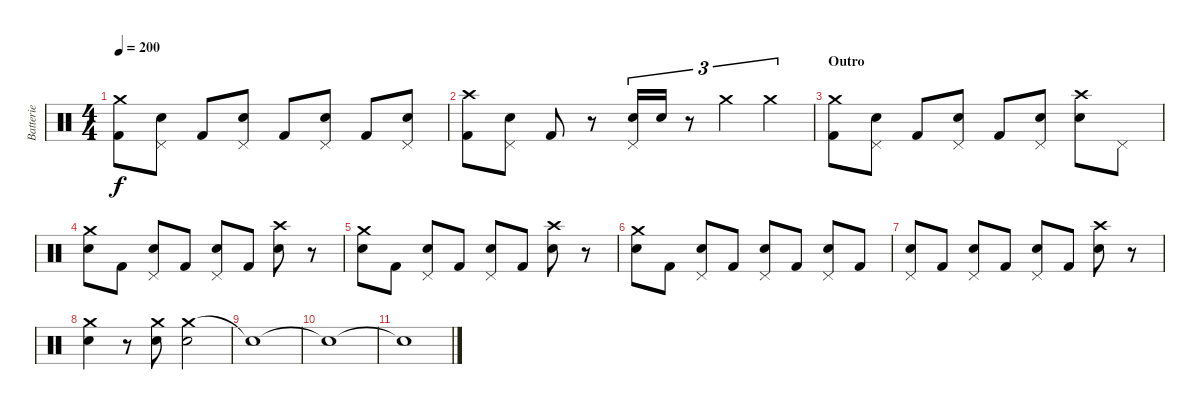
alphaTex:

\track ("Batterie" "Batterie") {instrument percussion}
\staff {score}
\articulation defaults
\ts (4 4)
\tempo 200
\clef neutral
\ks c
("Crash medium (hit)" "Kick (hit) 2").8{dy f} ("Pedal Hi-Hat (hit)" "Snare (hit) 2").8 "Kick (hit) 2".8 ("Pedal Hi-Hat (hit)" "Snare (hit) 2").8 "Kick (hit) 2".8 ("Pedal Hi-Hat (hit)" "Snare (hit) 2").8 "Kick (hit) 2".8 ("Pedal Hi-Hat (hit)" "Snare (hit) 2").8 |
("Crash high (hit)" "Kick (hit) 2").8 ("Pedal Hi-Hat (hit)" "Snare (hit) 2").8 "Kick (hit) 2".8 r.8 ("Pedal Hi-Hat (hit)" "Snare (hit) 2").16{tu (3 2)} "Snare (hit) 2".16{tu (3 2)} r.8{tu (3 2)} "Crash medium (hit)".4{tu (3 2)} "Crash medium (hit)".4{tu (3 2)} |
\section ("" "Outro")
("Crash medium (hit)" "Kick (hit) 2").8 ("Pedal Hi-Hat (hit)" "Snare (hit) 2").8 "Kick (hit) 2".8 ("Pedal Hi-Hat (hit)" "Snare (hit) 2").8 "Kick (hit) 2".8 ("Pedal Hi-Hat (hit)" "Snare (hit) 2").8 ("Crash high (hit)" "Snare (hit) 2").8 "Pedal Hi-Hat (hit)".8 |
("Crash medium (hit)" "Snare (hit) 2").8 "Kick (hit) 2".8 ("Pedal Hi-Hat (hit)" "Snare (hit) 2").8 "Kick (hit) 2".8 ("Pedal Hi-Hat (hit)" "Snare (hit) 2").8 "Kick (hit) 2".8 ("Crash high (hit)" "Snare (hit) 2").8 r.8 |
("Crash medium (hit)" "Snare (hit) 2").8 "Kick (hit) 2".8 ("Pedal Hi-Hat (hit)" "Snare (hit) 2").8 "Kick (hit) 2".8 ("Pedal Hi-Hat (hit)" "Snare (hit) 2").8 "Kick (hit) 2".8 ("Crash high (hit)" "Snare (hit) 2").8 r.8 |
("Crash medium (hit)" "Snare (hit) 2").8 "Kick (hit) 2".8 ("Pedal Hi-Hat (hit)" "Snare (hit) 2").8 "Kick (hit) 2".8 ("Pedal Hi-Hat (hit)" "Snare (hit) 2").8 "Kick (hit) 2".8 ("Pedal Hi-Hat (hit)" "Snare (hit) 2").8 "Kick (hit) 2".8 |
("Pedal Hi-Hat (hit)" "Snare (hit) 2").8 "Kick (hit) 2".8 ("Pedal Hi-Hat (hit)" "Snare (hit) 2").8 "Kick (hit) 2".8 ("Pedal Hi-Hat (hit)" "Snare (hit) 2").8 "Kick (hit) 2".8 ("Crash high (hit)" "Snare (hit) 2").8 r.8 |
("Crash medium (hit)" "Snare (hit) 2").4 r.8 ("Crash medium (hit)" "Snare (hit) 2").8 ("Crash medium (hit)" "Snare (hit) 2").2 |
"Snare (hit)"{t}.1 |
"Snare (hit)"{t}.1 |
"Snare (hit)"{t}.1
